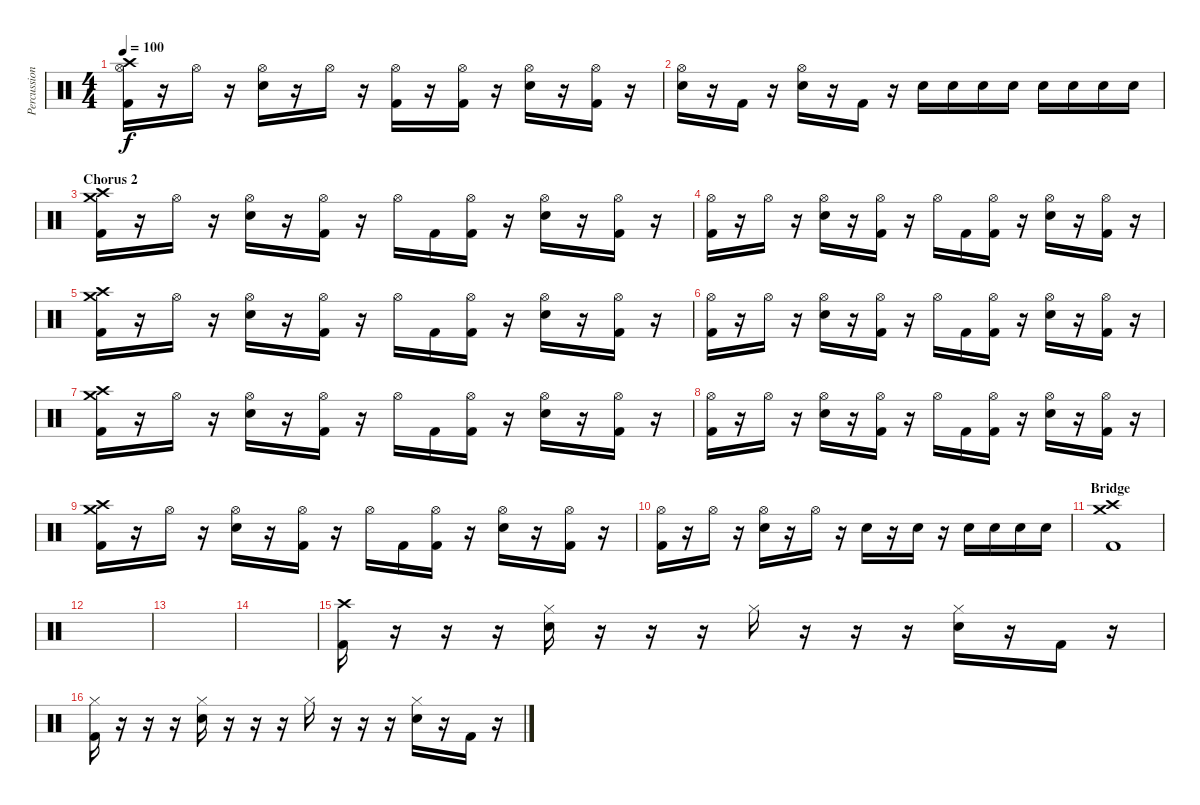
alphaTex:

\track ("Percussion" "Percussion") {instrument percussion}
\staff {score}
\articulation defaults
\ts (4 4)
\tempo 100
\clef neutral
\ks c
("Kick (hit) 2" "Hi-Hat (open)" "Crash high (hit)").16{dy f} r.16 "Hi-Hat (open)".16 r.16 ("Snare (hit) 2" "Hi-Hat (open)").16 r.16 "Hi-Hat (open)".16 r.16 ("Kick (hit) 2" "Hi-Hat (open)").16 r.16 ("Kick (hit) 2" "Hi-Hat (open)").16 r.16 ("Snare (hit) 2" "Hi-Hat (open)").16 r.16 ("Kick (hit) 2" "Hi-Hat (open)").16 r.16 |
("Snare (hit) 2" "Hi-Hat (open)").16 r.16 "Kick (hit) 2".16 r.16 ("Snare (hit) 2" "Hi-Hat (open)").16 r.16 "Kick (hit) 2".16 r.16 "Snare (hit) 2".16 "Snare (hit) 2".16 "Snare (hit) 2".16 "Snare (hit) 2".16 "Snare (hit) 2".16 "Snare (hit) 2".16 "Snare (hit) 2".16 "Snare (hit) 2".16 |
\section ("" "Chorus 2")
("Kick (hit) 2" "Crash medium (hit)" "Crash high (hit)").16 r.16 "Hi-Hat (open)".16 r.16 ("Snare (hit) 2" "Hi-Hat (open)").16 r.16 ("Kick (hit) 2" "Hi-Hat (open)").16 r.16 "Hi-Hat (open)".16 "Kick (hit) 2".16 ("Kick (hit) 2" "Hi-Hat (open)").16 r.16 ("Snare (hit) 2" "Hi-Hat (open)").16 r.16 ("Kick (hit) 2" "Hi-Hat (open)").16 r.16 |
("Kick (hit) 2" "Hi-Hat (open)").16 r.16 "Hi-Hat (open)".16 r.16 ("Snare (hit) 2" "Hi-Hat (open)").16 r.16 ("Kick (hit) 2" "Hi-Hat (open)").16 r.16 "Hi-Hat (open)".16 "Kick (hit) 2".16 ("Kick (hit) 2" "Hi-Hat (open)").16 r.16 ("Snare (hit) 2" "Hi-Hat (open)").16 r.16 ("Kick (hit) 2" "Hi-Hat (open)").16 r.16 |
("Kick (hit) 2" "Crash medium (hit)" "Crash high (hit)").16 r.16 "Hi-Hat (open)".16 r.16 ("Snare (hit) 2" "Hi-Hat (open)").16 r.16 ("Kick (hit) 2" "Hi-Hat (open)").16 r.16 "Hi-Hat (open)".16 "Kick (hit) 2".16 ("Kick (hit) 2" "Hi-Hat (open)").16 r.16 ("Snare (hit) 2" "Hi-Hat (open)").16 r.16 ("Kick (hit) 2" "Hi-Hat (open)").16 r.16 |
("Kick (hit) 2" "Hi-Hat (open)").16 r.16 "Hi-Hat (open)".16 r.16 ("Snare (hit) 2" "Hi-Hat (open)").16 r.16 ("Kick (hit) 2" "Hi-Hat (open)").16 r.16 "Hi-Hat (open)".16 "Kick (hit) 2".16 ("Kick (hit) 2" "Hi-Hat (open)").16 r.16 ("Snare (hit) 2" "Hi-Hat (open)").16 r.16 ("Kick (hit) 2" "Hi-Hat (open)").16 r.16 |
("Kick (hit) 2" "Crash medium (hit)" "Crash high (hit)").16 r.16 "Hi-Hat (open)".16 r.16 ("Snare (hit) 2" "Hi-Hat (open)").16 r.16 ("Kick (hit) 2" "Hi-Hat (open)").16 r.16 "Hi-Hat (open)".16 "Kick (hit) 2".16 ("Kick (hit) 2" "Hi-Hat (open)").16 r.16 ("Snare (hit) 2" "Hi-Hat (open)").16 r.16 ("Kick (hit) 2" "Hi-Hat (open)").16 r.16 |
("Kick (hit) 2" "Hi-Hat (open)").16 r.16 "Hi-Hat (open)".16 r.16 ("Snare (hit) 2" "Hi-Hat (open)").16 r.16 ("Kick (hit) 2" "Hi-Hat (open)").16 r.16 "Hi-Hat (open)".16 "Kick (hit) 2".16 ("Kick (hit) 2" "Hi-Hat (open)").16 r.16 ("Snare (hit) 2" "Hi-Hat (open)").16 r.16 ("Kick (hit) 2" "Hi-Hat (open)").16 r.16 |
("Kick (hit) 2" "Crash medium (hit)" "Crash high (hit)").16 r.16 "Hi-Hat (open)".16 r.16 ("Snare (hit) 2" "Hi-Hat (open)").16 r.16 ("Kick (hit) 2" "Hi-Hat (open)").16 r.16 "Hi-Hat (open)".16 "Kick (hit) 2".16 ("Kick (hit) 2" "Hi-Hat (open)").16 r.16 ("Snare (hit) 2" "Hi-Hat (open)").16 r.16 ("Kick (hit) 2" "Hi-Hat (open)").16 r.16 |
("Kick (hit) 2" "Hi-Hat (open)").16 r.16 "Hi-Hat (open)".16 r.16 ("Snare (hit) 2" "Hi-Hat (open)").16 r.16 "Hi-Hat (open)".16 r.16 "Snare (hit) 2".16 r.16 "Snare (hit) 2".16 r.16 "Snare (hit) 2".16 "Snare (hit) 2".16 "Snare (hit) 2".16 "Snare (hit) 2".16 |
\section ("" "Bridge")
("Kick (hit) 2" "Crash medium (hit)" "Crash high (hit)").1 |
|
|
|
("Kick (hit) 2" "Crash high (hit)").16 r.16 r.16 r.16 ("Snare (hit) 2" "Hi-Hat (closed)").16 r.16 r.16 r.16 "Hi-Hat (closed)".16 r.16 r.16 r.16 ("Snare (hit) 2" "Hi-Hat (closed)").16 r.16 "Kick (hit) 2".16 r.16 |
("Kick (hit) 2" "Hi-Hat (closed)").16 r.16 r.16 r.16 ("Snare (hit) 2" "Hi-Hat (closed)").16 r.16 r.16 r.16 "Hi-Hat (closed)".16 r.16 r.16 r.16 ("Snare (hit) 2" "Hi-Hat (closed)").16 r.16 "Kick (hit) 2".16 r.16
